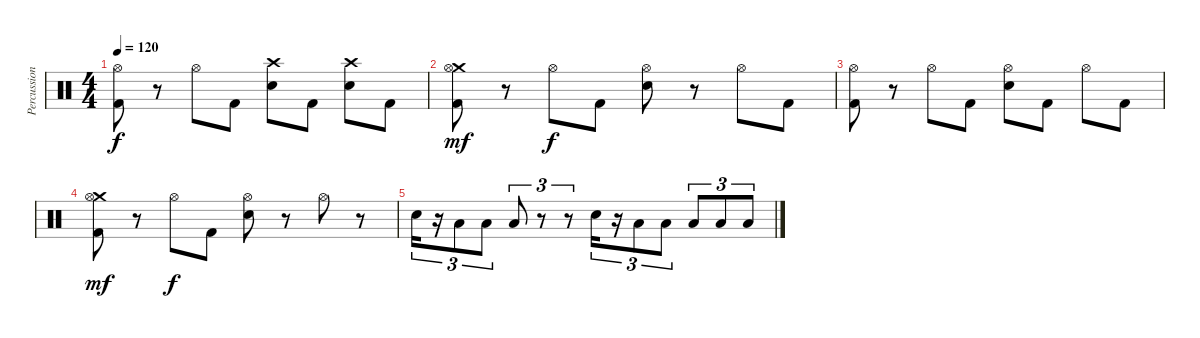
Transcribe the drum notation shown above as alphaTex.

\track ("Percussion" "Percussion") {instrument percussion}
\staff {score}
\articulation defaults
\ts (4 4)
\tempo 120
\clef neutral
\ks c
("Hi-Hat (open)" "Kick (hit) 2").8{dy f} r.8 "Hi-Hat (open)".8 "Kick (hit) 2".8 ("Crash high (hit)" "Electric Snare (hit)").8 "Kick (hit) 2".8 ("Crash high (hit)" "Electric Snare (hit)").8 "Kick (hit) 2".8 |
("Crash medium (hit)" "Hi-Hat (open)" "Kick (hit) 2").8{dy mf} r.8 "Hi-Hat (open)".8{dy f} "Kick (hit) 2".8 ("Hi-Hat (open)" "Electric Snare (hit)").8 r.8 "Hi-Hat (open)".8 "Kick (hit) 2".8 |
("Hi-Hat (open)" "Kick (hit) 2").8 r.8 "Hi-Hat (open)".8 "Kick (hit) 2".8 ("Hi-Hat (open)" "Electric Snare (hit)").8 "Kick (hit) 2".8 "Hi-Hat (open)".8 "Kick (hit) 2".8 |
("Crash medium (hit)" "Hi-Hat (open)" "Kick (hit) 2").8{dy mf} r.8 "Hi-Hat (open)".8{dy f} "Kick (hit) 2".8 ("Hi-Hat (open)" "Electric Snare (hit)").8 r.8 "Hi-Hat (open)".8 r.8 |
"Electric Snare (hit)".16{tu (3 2)} r.16{tu (3 2)} "Low Tom (hit)".8{tu (3 2)} "Low Tom (hit)".8{tu (3 2)} "Low Tom (hit)".8{tu (3 2)} r.8{tu (3 2)} r.8{tu (3 2)} "Electric Snare (hit)".16{tu (3 2)} r.16{tu (3 2)} "Low Tom (hit)".8{tu (3 2)} "Low Tom (hit)".8{tu (3 2)} "Low Tom (hit)".8{tu (3 2)} "Low Tom (hit)".8{tu (3 2)} "Low Tom (hit)".8{tu (3 2)}
